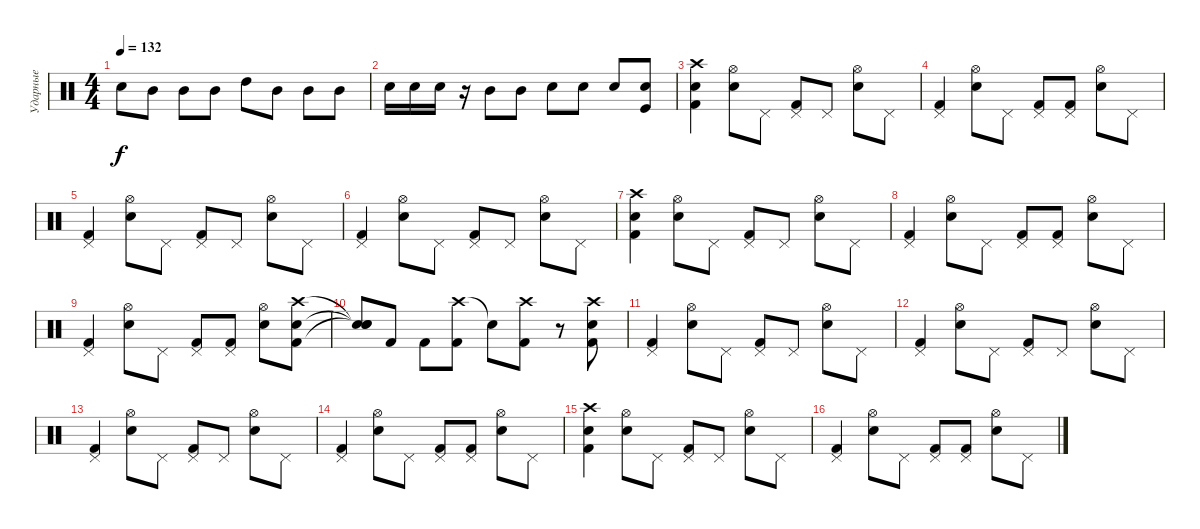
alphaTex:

\track ("Ударные" "Ударные") {instrument percussion}
\staff {score}
\articulation defaults
\ts (4 4)
\tempo 132
\clef neutral
\ks c "Snare (hit) 2".8{dy f} "Mid Tom (hit)".8 "Mid Tom (hit)".8 "Mid Tom (hit)".8 "High Tom (hit)".8 "Mid Tom (hit)".8 "Mid Tom (hit)".8 "Mid Tom (hit)".8
|
"Snare (hit) 2".16 "Snare (hit) 2".16 "Snare (hit) 2".16 r.16 "Mid Tom (hit)".8 "Mid Tom (hit)".8 "Electric Snare (hit)".8 "Snare (hit) 2".8 "Snare (hit) 2".8 ("Snare (hit) 2" "Kick (hit)").8 |
("Electric Snare (hit)" "Kick (hit) 2" "Crash high (hit)").4 ("Hi-Hat (open)" "Electric Snare (hit)").8 "Pedal Hi-Hat (hit)".8 ("Kick (hit) 2" "Pedal Hi-Hat (hit)").8 "Pedal Hi-Hat (hit)".8 ("Electric Snare (hit)" "Hi-Hat (open)").8 "Pedal Hi-Hat (hit)".8 |
("Kick (hit) 2" "Pedal Hi-Hat (hit)").4 ("Hi-Hat (open)" "Electric Snare (hit)").8 "Pedal Hi-Hat (hit)".8 ("Kick (hit) 2" "Pedal Hi-Hat (hit)").8 ("Kick (hit) 2" "Pedal Hi-Hat (hit)").8 ("Electric Snare (hit)" "Hi-Hat (open)").8 "Pedal Hi-Hat (hit)".8 |
("Pedal Hi-Hat (hit)" "Kick (hit) 2").4 ("Hi-Hat (open)" "Electric Snare (hit)").8 "Pedal Hi-Hat (hit)".8 ("Kick (hit) 2" "Pedal Hi-Hat (hit)").8 "Pedal Hi-Hat (hit)".8 ("Electric Snare (hit)" "Hi-Hat (open)").8 "Pedal Hi-Hat (hit)".8 |
("Pedal Hi-Hat (hit)" "Kick (hit) 2").4 ("Hi-Hat (open)" "Electric Snare (hit)").8 "Pedal Hi-Hat (hit)".8 ("Kick (hit) 2" "Pedal Hi-Hat (hit)").8 "Pedal Hi-Hat (hit)".8 ("Electric Snare (hit)" "Hi-Hat (open)").8 "Pedal Hi-Hat (hit)".8 |
("Electric Snare (hit)" "Kick (hit) 2" "Crash high (hit)").4 ("Hi-Hat (open)" "Electric Snare (hit)").8 "Pedal Hi-Hat (hit)".8 ("Kick (hit) 2" "Pedal Hi-Hat (hit)").8 "Pedal Hi-Hat (hit)".8 ("Electric Snare (hit)" "Hi-Hat (open)").8 "Pedal Hi-Hat (hit)".8 |
("Kick (hit) 2" "Pedal Hi-Hat (hit)").4 ("Hi-Hat (open)" "Electric Snare (hit)").8 "Pedal Hi-Hat (hit)".8 ("Kick (hit) 2" "Pedal Hi-Hat (hit)").8 ("Kick (hit) 2" "Pedal Hi-Hat (hit)").8 ("Electric Snare (hit)" "Hi-Hat (open)").8 "Pedal Hi-Hat (hit)".8 |
("Kick (hit) 2" "Pedal Hi-Hat (hit)").4 ("Hi-Hat (open)" "Electric Snare (hit)").8 "Pedal Hi-Hat (hit)".8 ("Kick (hit) 2" "Pedal Hi-Hat (hit)").8 ("Kick (hit) 2" "Pedal Hi-Hat (hit)").8 ("Electric Snare (hit)" "Hi-Hat (open)").8 ("Crash high (hit)" "Kick (hit) 2" "Electric Snare (hit)").8 |
("Snare (hit)"{t} "Snare (hit)"{t} "Snare (hit)"{t}).8 "Kick (hit) 2".8 "Kick (hit) 2".8 ("Crash high (hit)" "Kick (hit) 2").8 "Snare (hit)"{t}.8 ("Crash high (hit)" "Kick (hit) 2").8 r.8 ("Crash high (hit)" "Electric Snare (hit)" "Kick (hit) 2").8 |
("Pedal Hi-Hat (hit)" "Kick (hit) 2").4 ("Hi-Hat (open)" "Electric Snare (hit)").8 "Pedal Hi-Hat (hit)".8 ("Kick (hit) 2" "Pedal Hi-Hat (hit)").8 "Pedal Hi-Hat (hit)".8 ("Electric Snare (hit)" "Hi-Hat (open)").8 "Pedal Hi-Hat (hit)".8 |
("Pedal Hi-Hat (hit)" "Kick (hit) 2").4 ("Hi-Hat (open)" "Electric Snare (hit)").8 "Pedal Hi-Hat (hit)".8 ("Kick (hit) 2" "Pedal Hi-Hat (hit)").8 "Pedal Hi-Hat (hit)".8 ("Electric Snare (hit)" "Hi-Hat (open)").8 "Pedal Hi-Hat (hit)".8 |
("Pedal Hi-Hat (hit)" "Kick (hit) 2").4 ("Hi-Hat (open)" "Electric Snare (hit)").8 "Pedal Hi-Hat (hit)".8 ("Kick (hit) 2" "Pedal Hi-Hat (hit)").8 "Pedal Hi-Hat (hit)".8 ("Electric Snare (hit)" "Hi-Hat (open)").8 "Pedal Hi-Hat (hit)".8 |
("Kick (hit) 2" "Pedal Hi-Hat (hit)").4 ("Hi-Hat (open)" "Electric Snare (hit)").8 "Pedal Hi-Hat (hit)".8 ("Kick (hit) 2" "Pedal Hi-Hat (hit)").8 ("Kick (hit) 2" "Pedal Hi-Hat (hit)").8 ("Electric Snare (hit)" "Hi-Hat (open)").8 "Pedal Hi-Hat (hit)".8 |
("Electric Snare (hit)" "Kick (hit) 2" "Crash high (hit)").4 ("Hi-Hat (open)" "Electric Snare (hit)").8 "Pedal Hi-Hat (hit)".8 ("Kick (hit) 2" "Pedal Hi-Hat (hit)").8 "Pedal Hi-Hat (hit)".8 ("Electric Snare (hit)" "Hi-Hat (open)").8 "Pedal Hi-Hat (hit)".8 |
("Kick (hit) 2" "Pedal Hi-Hat (hit)").4 ("Hi-Hat (open)" "Electric Snare (hit)").8 "Pedal Hi-Hat (hit)".8 ("Kick (hit) 2" "Pedal Hi-Hat (hit)").8 ("Kick (hit) 2" "Pedal Hi-Hat (hit)").8 ("Electric Snare (hit)" "Hi-Hat (open)").8 "Pedal Hi-Hat (hit)".8
